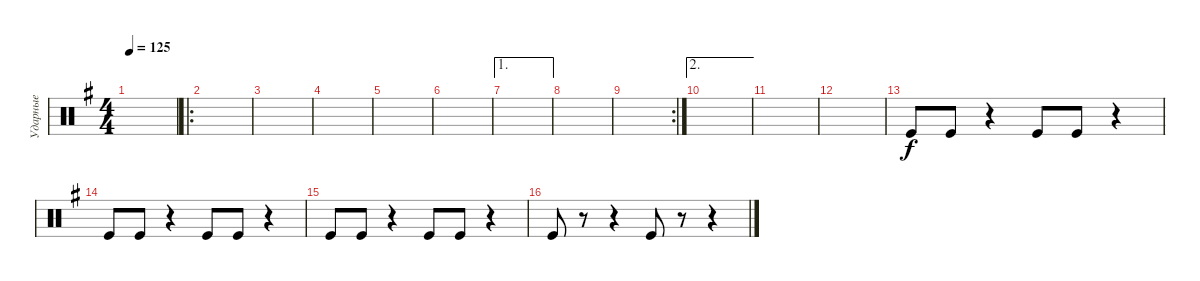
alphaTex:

\track ("Ударные" "Ударные") {instrument percussion}
\staff {score}
\articulation defaults
\ts (4 4)
\tempo 125
\clef neutral
\ks g
|
\ro
|
|
|
|
|
\ae 1
|
|
\rc 2
|
\ae 2
|
|
|
"Kick (hit)".8 "Kick (hit)".8 r.4 "Kick (hit)".8 "Kick (hit)".8 r.4 |
"Kick (hit)".8 "Kick (hit)".8 r.4 "Kick (hit)".8 "Kick (hit)".8 r.4 |
"Kick (hit)".8 "Kick (hit)".8 r.4 "Kick (hit)".8 "Kick (hit)".8 r.4 |
"Kick (hit)".8 r.8 r.4 "Kick (hit)".8 r.8 r.4
